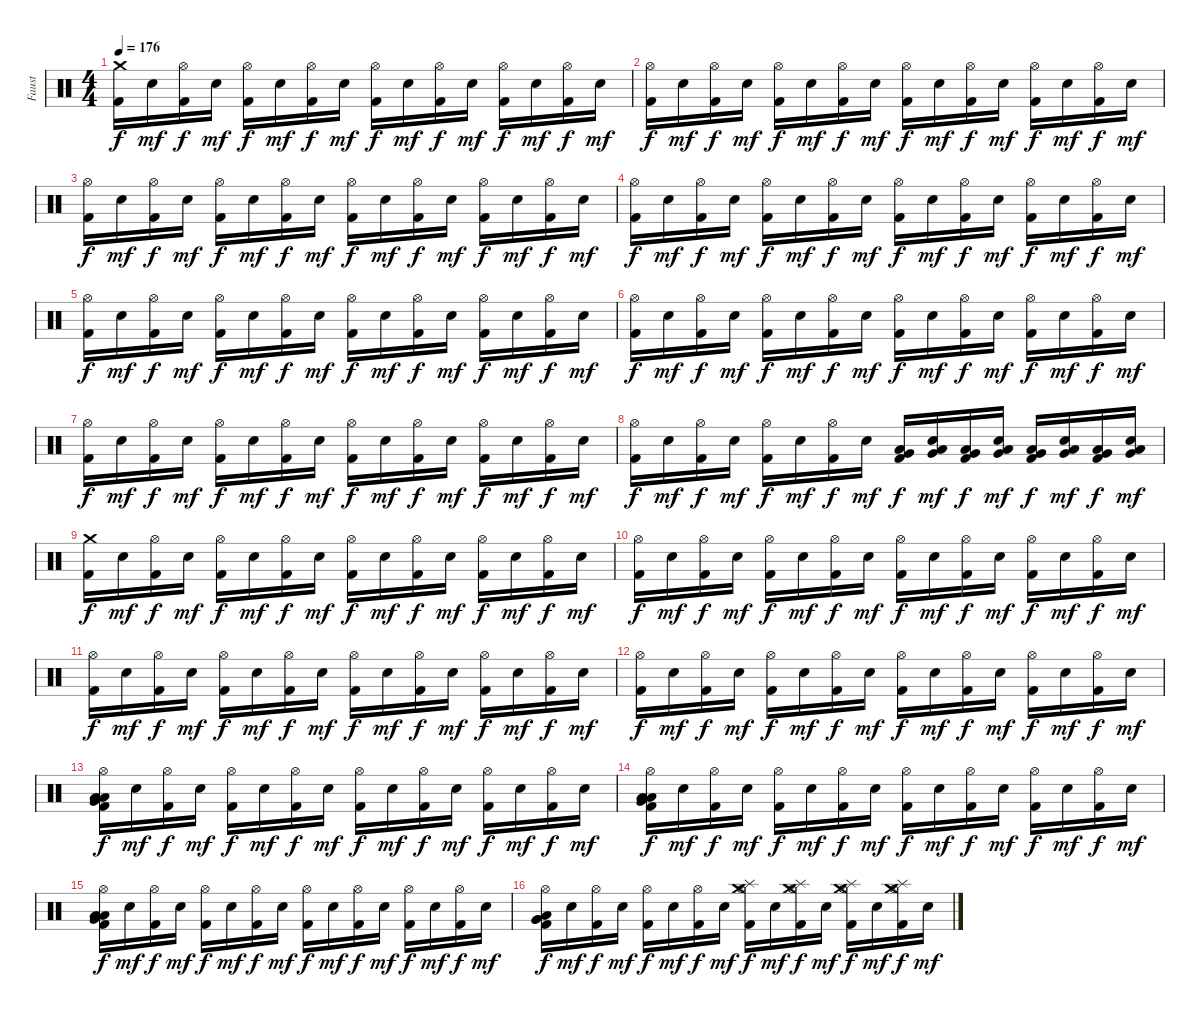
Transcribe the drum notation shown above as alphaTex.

\track ("Faust" "Faust") {instrument percussion}
\staff {score}
\articulation defaults
\ts (4 4)
\tempo 176
\clef neutral
\ks c
("Crash medium (hit)" "Kick (hit) 2").16{dy f} "Electric Snare (hit)".16{dy mf} ("Hi-Hat (open)" "Kick (hit) 2").16{dy f} "Electric Snare (hit)".16{dy mf} ("Hi-Hat (open)" "Kick (hit) 2").16{dy f} "Electric Snare (hit)".16{dy mf} ("Hi-Hat (open)" "Kick (hit) 2").16{dy f} "Electric Snare (hit)".16{dy mf} ("Hi-Hat (open)" "Kick (hit) 2").16{dy f} "Electric Snare (hit)".16{dy mf} ("Hi-Hat (open)" "Kick (hit) 2").16{dy f} "Electric Snare (hit)".16{dy mf} ("Hi-Hat (open)" "Kick (hit) 2").16{dy f} "Electric Snare (hit)".16{dy mf} ("Hi-Hat (open)" "Kick (hit) 2").16{dy f} "Electric Snare (hit)".16{dy mf} |
("Hi-Hat (open)" "Kick (hit) 2").16{dy f} "Electric Snare (hit)".16{dy mf} ("Hi-Hat (open)" "Kick (hit) 2").16{dy f} "Electric Snare (hit)".16{dy mf} ("Hi-Hat (open)" "Kick (hit) 2").16{dy f} "Electric Snare (hit)".16{dy mf} ("Hi-Hat (open)" "Kick (hit) 2").16{dy f} "Electric Snare (hit)".16{dy mf} ("Hi-Hat (open)" "Kick (hit) 2").16{dy f} "Electric Snare (hit)".16{dy mf} ("Hi-Hat (open)" "Kick (hit) 2").16{dy f} "Electric Snare (hit)".16{dy mf} ("Hi-Hat (open)" "Kick (hit) 2").16{dy f} "Electric Snare (hit)".16{dy mf} ("Hi-Hat (open)" "Kick (hit) 2").16{dy f} "Electric Snare (hit)".16{dy mf} |
("Hi-Hat (open)" "Kick (hit) 2").16{dy f} "Electric Snare (hit)".16{dy mf} ("Hi-Hat (open)" "Kick (hit) 2").16{dy f} "Electric Snare (hit)".16{dy mf} ("Hi-Hat (open)" "Kick (hit) 2").16{dy f} "Electric Snare (hit)".16{dy mf} ("Hi-Hat (open)" "Kick (hit) 2").16{dy f} "Electric Snare (hit)".16{dy mf} ("Hi-Hat (open)" "Kick (hit) 2").16{dy f} "Electric Snare (hit)".16{dy mf} ("Hi-Hat (open)" "Kick (hit) 2").16{dy f} "Electric Snare (hit)".16{dy mf} ("Hi-Hat (open)" "Kick (hit) 2").16{dy f} "Electric Snare (hit)".16{dy mf} ("Hi-Hat (open)" "Kick (hit) 2").16{dy f} "Electric Snare (hit)".16{dy mf} |
("Hi-Hat (open)" "Kick (hit) 2").16{dy f} "Electric Snare (hit)".16{dy mf} ("Hi-Hat (open)" "Kick (hit) 2").16{dy f} "Electric Snare (hit)".16{dy mf} ("Hi-Hat (open)" "Kick (hit) 2").16{dy f} "Electric Snare (hit)".16{dy mf} ("Hi-Hat (open)" "Kick (hit) 2").16{dy f} "Electric Snare (hit)".16{dy mf} ("Hi-Hat (open)" "Kick (hit) 2").16{dy f} "Electric Snare (hit)".16{dy mf} ("Hi-Hat (open)" "Kick (hit) 2").16{dy f} "Electric Snare (hit)".16{dy mf} ("Hi-Hat (open)" "Kick (hit) 2").16{dy f} "Electric Snare (hit)".16{dy mf} ("Hi-Hat (open)" "Kick (hit) 2").16{dy f} "Electric Snare (hit)".16{dy mf} |
("Hi-Hat (open)" "Kick (hit) 2").16{dy f} "Electric Snare (hit)".16{dy mf} ("Hi-Hat (open)" "Kick (hit) 2").16{dy f} "Electric Snare (hit)".16{dy mf} ("Hi-Hat (open)" "Kick (hit) 2").16{dy f} "Electric Snare (hit)".16{dy mf} ("Hi-Hat (open)" "Kick (hit) 2").16{dy f} "Electric Snare (hit)".16{dy mf} ("Hi-Hat (open)" "Kick (hit) 2").16{dy f} "Electric Snare (hit)".16{dy mf} ("Hi-Hat (open)" "Kick (hit) 2").16{dy f} "Electric Snare (hit)".16{dy mf} ("Hi-Hat (open)" "Kick (hit) 2").16{dy f} "Electric Snare (hit)".16{dy mf} ("Hi-Hat (open)" "Kick (hit) 2").16{dy f} "Electric Snare (hit)".16{dy mf} |
("Hi-Hat (open)" "Kick (hit) 2").16{dy f} "Electric Snare (hit)".16{dy mf} ("Hi-Hat (open)" "Kick (hit) 2").16{dy f} "Electric Snare (hit)".16{dy mf} ("Hi-Hat (open)" "Kick (hit) 2").16{dy f} "Electric Snare (hit)".16{dy mf} ("Hi-Hat (open)" "Kick (hit) 2").16{dy f} "Electric Snare (hit)".16{dy mf} ("Hi-Hat (open)" "Kick (hit) 2").16{dy f} "Electric Snare (hit)".16{dy mf} ("Hi-Hat (open)" "Kick (hit) 2").16{dy f} "Electric Snare (hit)".16{dy mf} ("Hi-Hat (open)" "Kick (hit) 2").16{dy f} "Electric Snare (hit)".16{dy mf} ("Hi-Hat (open)" "Kick (hit) 2").16{dy f} "Electric Snare (hit)".16{dy mf} |
("Hi-Hat (open)" "Kick (hit) 2").16{dy f} "Electric Snare (hit)".16{dy mf} ("Hi-Hat (open)" "Kick (hit) 2").16{dy f} "Electric Snare (hit)".16{dy mf} ("Hi-Hat (open)" "Kick (hit) 2").16{dy f} "Electric Snare (hit)".16{dy mf} ("Hi-Hat (open)" "Kick (hit) 2").16{dy f} "Electric Snare (hit)".16{dy mf} ("Hi-Hat (open)" "Kick (hit) 2").16{dy f} "Electric Snare (hit)".16{dy mf} ("Hi-Hat (open)" "Kick (hit) 2").16{dy f} "Electric Snare (hit)".16{dy mf} ("Hi-Hat (open)" "Kick (hit) 2").16{dy f} "Electric Snare (hit)".16{dy mf} ("Hi-Hat (open)" "Kick (hit) 2").16{dy f} "Electric Snare (hit)".16{dy mf} |
("Hi-Hat (open)" "Kick (hit) 2").16{dy f} "Electric Snare (hit)".16{dy mf} ("Hi-Hat (open)" "Kick (hit) 2").16{dy f} "Electric Snare (hit)".16{dy mf} ("Hi-Hat (open)" "Kick (hit) 2").16{dy f} "Electric Snare (hit)".16{dy mf} ("Hi-Hat (open)" "Kick (hit) 2").16{dy f} "Electric Snare (hit)".16{dy mf} ("Very Low Tom (hit)" "Low Tom (hit)" "Kick (hit) 2").16{dy f} ("Very Low Tom (hit)" "Low Tom (hit)" "Electric Snare (hit)").16{dy mf} ("Very Low Tom (hit)" "Low Tom (hit)" "Kick (hit) 2").16{dy f} ("Very Low Tom (hit)" "Low Tom (hit)" "Electric Snare (hit)").16{dy mf} ("Low Floor Tom (hit)" "Very Low Tom (hit)" "Kick (hit) 2").16{dy f} ("Low Floor Tom (hit)" "Very Low Tom (hit)" "Electric Snare (hit)").16{dy mf} ("Low Floor Tom (hit)" "Very Low Tom (hit)" "Kick (hit) 2").16{dy f} ("Low Floor Tom (hit)" "Very Low Tom (hit)" "Electric Snare (hit)").16{dy mf} |
("Crash medium (hit)" "Kick (hit) 2").16{dy f} "Electric Snare (hit)".16{dy mf} ("Hi-Hat (open)" "Kick (hit) 2").16{dy f} "Electric Snare (hit)".16{dy mf} ("Hi-Hat (open)" "Kick (hit) 2").16{dy f} "Electric Snare (hit)".16{dy mf} ("Hi-Hat (open)" "Kick (hit) 2").16{dy f} "Electric Snare (hit)".16{dy mf} ("Hi-Hat (open)" "Kick (hit) 2").16{dy f} "Electric Snare (hit)".16{dy mf} ("Hi-Hat (open)" "Kick (hit) 2").16{dy f} "Electric Snare (hit)".16{dy mf} ("Hi-Hat (open)" "Kick (hit) 2").16{dy f} "Electric Snare (hit)".16{dy mf} ("Hi-Hat (open)" "Kick (hit) 2").16{dy f} "Electric Snare (hit)".16{dy mf} |
("Hi-Hat (open)" "Kick (hit) 2").16{dy f} "Electric Snare (hit)".16{dy mf} ("Hi-Hat (open)" "Kick (hit) 2").16{dy f} "Electric Snare (hit)".16{dy mf} ("Hi-Hat (open)" "Kick (hit) 2").16{dy f} "Electric Snare (hit)".16{dy mf} ("Hi-Hat (open)" "Kick (hit) 2").16{dy f} "Electric Snare (hit)".16{dy mf} ("Hi-Hat (open)" "Kick (hit) 2").16{dy f} "Electric Snare (hit)".16{dy mf} ("Hi-Hat (open)" "Kick (hit) 2").16{dy f} "Electric Snare (hit)".16{dy mf} ("Hi-Hat (open)" "Kick (hit) 2").16{dy f} "Electric Snare (hit)".16{dy mf} ("Hi-Hat (open)" "Kick (hit) 2").16{dy f} "Electric Snare (hit)".16{dy mf} |
("Hi-Hat (open)" "Kick (hit) 2").16{dy f} "Electric Snare (hit)".16{dy mf} ("Hi-Hat (open)" "Kick (hit) 2").16{dy f} "Electric Snare (hit)".16{dy mf} ("Hi-Hat (open)" "Kick (hit) 2").16{dy f} "Electric Snare (hit)".16{dy mf} ("Hi-Hat (open)" "Kick (hit) 2").16{dy f} "Electric Snare (hit)".16{dy mf} ("Hi-Hat (open)" "Kick (hit) 2").16{dy f} "Electric Snare (hit)".16{dy mf} ("Hi-Hat (open)" "Kick (hit) 2").16{dy f} "Electric Snare (hit)".16{dy mf} ("Hi-Hat (open)" "Kick (hit) 2").16{dy f} "Electric Snare (hit)".16{dy mf} ("Hi-Hat (open)" "Kick (hit) 2").16{dy f} "Electric Snare (hit)".16{dy mf} |
("Hi-Hat (open)" "Kick (hit) 2").16{dy f} "Electric Snare (hit)".16{dy mf} ("Hi-Hat (open)" "Kick (hit) 2").16{dy f} "Electric Snare (hit)".16{dy mf} ("Hi-Hat (open)" "Kick (hit) 2").16{dy f} "Electric Snare (hit)".16{dy mf} ("Hi-Hat (open)" "Kick (hit) 2").16{dy f} "Electric Snare (hit)".16{dy mf} ("Hi-Hat (open)" "Kick (hit) 2").16{dy f} "Electric Snare (hit)".16{dy mf} ("Hi-Hat (open)" "Kick (hit) 2").16{dy f} "Electric Snare (hit)".16{dy mf} ("Hi-Hat (open)" "Kick (hit) 2").16{dy f} "Electric Snare (hit)".16{dy mf} ("Hi-Hat (open)" "Kick (hit) 2").16{dy f} "Electric Snare (hit)".16{dy mf} |
("Low Tom (hit)" "Very Low Tom (hit)" "Low Floor Tom (hit)" "Hi-Hat (open)" "Kick (hit) 2").16{dy f} "Electric Snare (hit)".16{dy mf} ("Hi-Hat (open)" "Kick (hit) 2").16{dy f} "Electric Snare (hit)".16{dy mf} ("Hi-Hat (open)" "Kick (hit) 2").16{dy f} "Electric Snare (hit)".16{dy mf} ("Hi-Hat (open)" "Kick (hit) 2").16{dy f} "Electric Snare (hit)".16{dy mf} ("Hi-Hat (open)" "Kick (hit) 2").16{dy f} "Electric Snare (hit)".16{dy mf} ("Hi-Hat (open)" "Kick (hit) 2").16{dy f} "Electric Snare (hit)".16{dy mf} ("Hi-Hat (open)" "Kick (hit) 2").16{dy f} "Electric Snare (hit)".16{dy mf} ("Hi-Hat (open)" "Kick (hit) 2").16{dy f} "Electric Snare (hit)".16{dy mf} |
("Low Tom (hit)" "Very Low Tom (hit)" "Low Floor Tom (hit)" "Hi-Hat (open)" "Kick (hit) 2").16{dy f} "Electric Snare (hit)".16{dy mf} ("Hi-Hat (open)" "Kick (hit) 2").16{dy f} "Electric Snare (hit)".16{dy mf} ("Hi-Hat (open)" "Kick (hit) 2").16{dy f} "Electric Snare (hit)".16{dy mf} ("Hi-Hat (open)" "Kick (hit) 2").16{dy f} "Electric Snare (hit)".16{dy mf} ("Hi-Hat (open)" "Kick (hit) 2").16{dy f} "Electric Snare (hit)".16{dy mf} ("Hi-Hat (open)" "Kick (hit) 2").16{dy f} "Electric Snare (hit)".16{dy mf} ("Hi-Hat (open)" "Kick (hit) 2").16{dy f} "Electric Snare (hit)".16{dy mf} ("Hi-Hat (open)" "Kick (hit) 2").16{dy f} "Electric Snare (hit)".16{dy mf} |
("Low Floor Tom (hit)" "Very Low Tom (hit)" "Low Tom (hit)" "Hi-Hat (open)" "Kick (hit) 2").16{dy f} "Electric Snare (hit)".16{dy mf} ("Hi-Hat (open)" "Kick (hit) 2").16{dy f} "Electric Snare (hit)".16{dy mf} ("Hi-Hat (open)" "Kick (hit) 2").16{dy f} "Electric Snare (hit)".16{dy mf} ("Hi-Hat (open)" "Kick (hit) 2").16{dy f} "Electric Snare (hit)".16{dy mf} ("Hi-Hat (open)" "Kick (hit) 2").16{dy f} "Electric Snare (hit)".16{dy mf} ("Hi-Hat (open)" "Kick (hit) 2").16{dy f} "Electric Snare (hit)".16{dy mf} ("Hi-Hat (open)" "Kick (hit) 2").16{dy f} "Electric Snare (hit)".16{dy mf} ("Hi-Hat (open)" "Kick (hit) 2").16{dy f} "Electric Snare (hit)".16{dy mf} |
("Very Low Tom (hit)" "Low Floor Tom (hit)" "Very Low Tom (hit)" "Hi-Hat (open)" "Kick (hit) 2").16{dy f} "Electric Snare (hit)".16{dy mf} ("Hi-Hat (open)" "Kick (hit) 2").16{dy f} "Electric Snare (hit)".16{dy mf} ("Hi-Hat (open)" "Kick (hit) 2").16{dy f} "Electric Snare (hit)".16{dy mf} ("Hi-Hat (open)" "Kick (hit) 2").16{dy f} "Electric Snare (hit)".16{dy mf} ("Splash (hit)" "Crash medium (hit)" "Hi-Hat (open)" "Kick (hit) 2").16{dy f} "Electric Snare (hit)".16{dy mf} ("Splash (hit)" "Crash medium (hit)" "Hi-Hat (open)" "Kick (hit) 2").16{dy f} "Electric Snare (hit)".16{dy mf} ("Splash (hit)" "Crash medium (hit)" "Hi-Hat (open)" "Kick (hit) 2").16{dy f} "Electric Snare (hit)".16{dy mf} ("Splash (hit)" "Crash medium (hit)" "Hi-Hat (open)" "Kick (hit) 2").16{dy f} "Electric Snare (hit)".16{dy mf}
